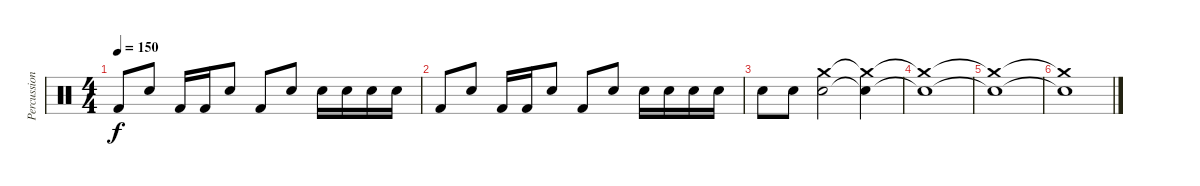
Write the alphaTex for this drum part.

\track ("Percussion" "Percussion") {instrument percussion}
\staff {score}
\articulation defaults
\ts (4 4)
\tempo 150
\clef neutral
\ks c "Kick (hit) 2".8{dy f} "Snare (hit) 2".8 "Kick (hit) 2".16 "Kick (hit) 2".16 "Snare (hit) 2".8 "Kick (hit) 2".8 "Snare (hit) 2".8 "Snare (hit) 2".16 "Snare (hit) 2".16 "Snare (hit) 2".16 "Snare (hit) 2".16
|
"Kick (hit) 2".8 "Snare (hit) 2".8 "Kick (hit) 2".16 "Kick (hit) 2".16 "Snare (hit) 2".8 "Kick (hit) 2".8 "Snare (hit) 2".8 "Snare (hit) 2".16 "Snare (hit) 2".16 "Snare (hit) 2".16 "Snare (hit) 2".16 |
"Snare (hit) 2".8 "Electric Snare (hit)".8 ("Snare (hit) 2" "Crash medium (hit)").2 ("Snare (hit) 2"{t} "Crash medium (hit)"{t}).4 |
("Snare (hit) 2"{t} "Crash medium (hit)"{t}).1 |
("Snare (hit) 2"{t} "Crash medium (hit)"{t}).1 |
("Snare (hit) 2"{t} "Crash medium (hit)"{t}).1
